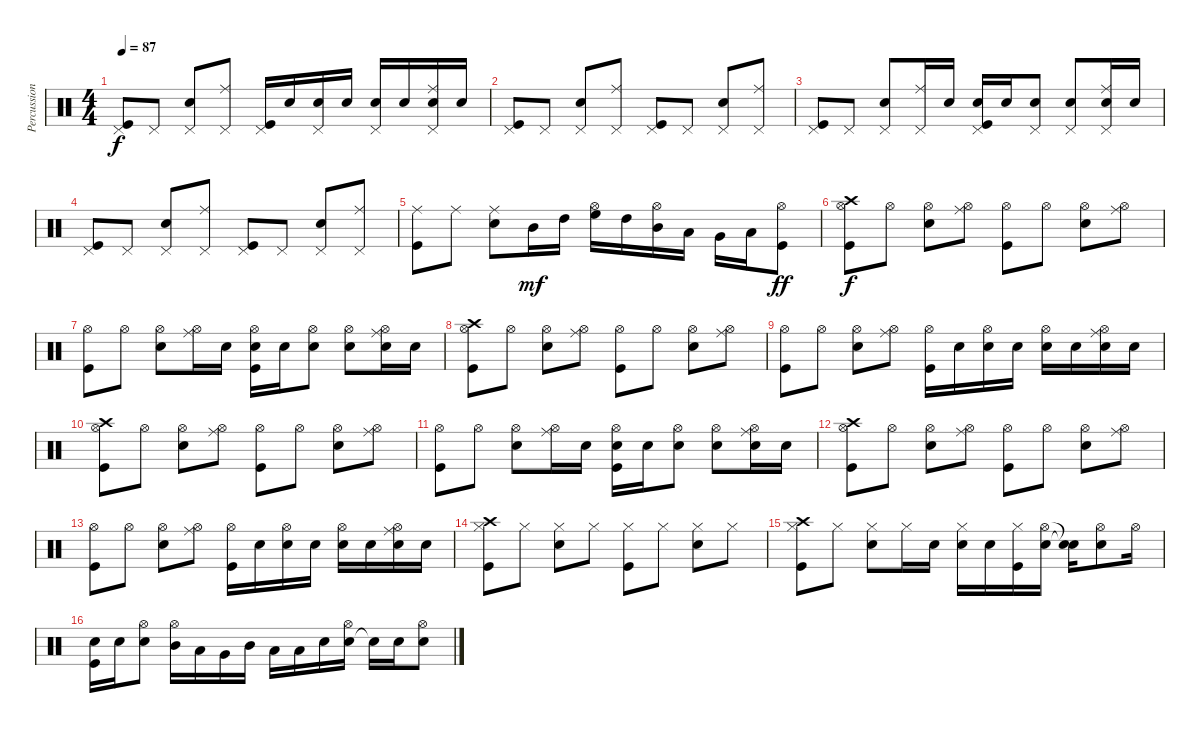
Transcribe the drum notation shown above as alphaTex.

\track ("Percussion" "Percussion") {instrument percussion}
\staff {score}
\articulation defaults
\ts (4 4)
\tempo 87
\clef neutral
\ks c
("Pedal Hi-Hat (hit)" "Kick (hit)").8{dy f} "Pedal Hi-Hat (hit)".8 ("Pedal Hi-Hat (hit)" "Snare (hit) 2").8 ("Ride (middle)" "Pedal Hi-Hat (hit)").8 ("Pedal Hi-Hat (hit)" "Kick (hit)").16 "Snare (hit) 2".16 ("Pedal Hi-Hat (hit)" "Snare (hit) 2").16 "Snare (hit) 2".16 ("Pedal Hi-Hat (hit)" "Snare (hit) 2").16 "Snare (hit) 2".16 ("Ride (middle)" "Pedal Hi-Hat (hit)" "Snare (hit) 2").16 "Snare (hit) 2".16 |
("Pedal Hi-Hat (hit)" "Kick (hit)").8 "Pedal Hi-Hat (hit)".8 ("Pedal Hi-Hat (hit)" "Snare (hit) 2").8 ("Ride (middle)" "Pedal Hi-Hat (hit)").8 ("Pedal Hi-Hat (hit)" "Kick (hit)").8 "Pedal Hi-Hat (hit)".8 ("Pedal Hi-Hat (hit)" "Snare (hit) 2").8 ("Ride (middle)" "Pedal Hi-Hat (hit)").8 |
("Pedal Hi-Hat (hit)" "Kick (hit)").8 "Pedal Hi-Hat (hit)".8 ("Pedal Hi-Hat (hit)" "Snare (hit) 2").8 ("Ride (middle)" "Pedal Hi-Hat (hit)").16 "Snare (hit) 2".16 ("Pedal Hi-Hat (hit)" "Snare (hit) 2" "Kick (hit)").16 "Snare (hit) 2".16 ("Pedal Hi-Hat (hit)" "Snare (hit) 2").8 ("Pedal Hi-Hat (hit)" "Snare (hit) 2").8 ("Ride (middle)" "Pedal Hi-Hat (hit)" "Snare (hit) 2").16 "Snare (hit) 2".16 |
("Pedal Hi-Hat (hit)" "Kick (hit)").8 "Pedal Hi-Hat (hit)".8 ("Pedal Hi-Hat (hit)" "Snare (hit) 2").8 ("Ride (middle)" "Pedal Hi-Hat (hit)").8 ("Pedal Hi-Hat (hit)" "Kick (hit)").8 "Pedal Hi-Hat (hit)".8 ("Pedal Hi-Hat (hit)" "Snare (hit) 2").8 ("Ride (middle)" "Pedal Hi-Hat (hit)").8 |
("Ride (middle)" "Kick (hit)").8 "Ride (middle)".8 ("Ride (middle)" "Snare (hit) 2").8 "Mid Tom (hit)".16{dy mf} "High Tom (hit)".16 ("Hi-Hat (open)" "High Floor Tom (hit)").16 "High Tom (hit)".16 ("Hi-Hat (open)" "Mid Tom (hit)").16 "Low Tom (hit)".16 "Very Low Tom (hit)".16 "Low Floor Tom (hit)".16 ("Hi-Hat (open)" "Kick (hit)").8{dy ff} |
("Hi-Hat (open)" "Crash high (hit)" "Kick (hit)").8{dy f} "Hi-Hat (open)".8 ("Hi-Hat (open)" "Snare (hit) 2").8 ("Ride (middle)" "Hi-Hat (open)").8 ("Hi-Hat (open)" "Kick (hit)").8 "Hi-Hat (open)".8 ("Hi-Hat (open)" "Snare (hit) 2").8 ("Ride (middle)" "Hi-Hat (open)").8 |
("Hi-Hat (open)" "Kick (hit)").8 "Hi-Hat (open)".8 ("Hi-Hat (open)" "Snare (hit) 2").8 ("Ride (middle)" "Hi-Hat (open)").16 "Snare (hit) 2".16 ("Hi-Hat (open)" "Snare (hit) 2" "Kick (hit)").16 "Snare (hit) 2".16 ("Hi-Hat (open)" "Snare (hit) 2").8 ("Hi-Hat (open)" "Snare (hit) 2").8 ("Ride (middle)" "Hi-Hat (open)" "Snare (hit) 2").16 "Snare (hit) 2".16 |
("Hi-Hat (open)" "Crash high (hit)" "Kick (hit)").8 "Hi-Hat (open)".8 ("Hi-Hat (open)" "Snare (hit) 2").8 ("Ride (middle)" "Hi-Hat (open)").8 ("Hi-Hat (open)" "Kick (hit)").8 "Hi-Hat (open)".8 ("Hi-Hat (open)" "Snare (hit) 2").8 ("Ride (middle)" "Hi-Hat (open)").8 |
("Hi-Hat (open)" "Kick (hit)").8 "Hi-Hat (open)".8 ("Hi-Hat (open)" "Snare (hit) 2").8 ("Ride (middle)" "Hi-Hat (open)").8 ("Hi-Hat (open)" "Kick (hit)").16 "Snare (hit) 2".16 ("Hi-Hat (open)" "Snare (hit) 2").16 "Snare (hit) 2".16 ("Hi-Hat (open)" "Snare (hit) 2").16 "Snare (hit) 2".16 ("Ride (middle)" "Hi-Hat (open)" "Snare (hit) 2").16 "Snare (hit) 2".16 |
("Hi-Hat (open)" "Crash high (hit)" "Kick (hit)").8 "Hi-Hat (open)".8 ("Hi-Hat (open)" "Snare (hit) 2").8 ("Ride (middle)" "Hi-Hat (open)").8 ("Hi-Hat (open)" "Kick (hit)").8 "Hi-Hat (open)".8 ("Hi-Hat (open)" "Snare (hit) 2").8 ("Ride (middle)" "Hi-Hat (open)").8 |
("Hi-Hat (open)" "Kick (hit)").8 "Hi-Hat (open)".8 ("Hi-Hat (open)" "Snare (hit) 2").8 ("Ride (middle)" "Hi-Hat (open)").16 "Snare (hit) 2".16 ("Hi-Hat (open)" "Snare (hit) 2" "Kick (hit)").16 "Snare (hit) 2".16 ("Hi-Hat (open)" "Snare (hit) 2").8 ("Hi-Hat (open)" "Snare (hit) 2").8 ("Ride (middle)" "Hi-Hat (open)" "Snare (hit) 2").16 "Snare (hit) 2".16 |
("Hi-Hat (open)" "Crash high (hit)" "Kick (hit)").8 "Hi-Hat (open)".8 ("Hi-Hat (open)" "Snare (hit) 2").8 ("Ride (middle)" "Hi-Hat (open)").8 ("Hi-Hat (open)" "Kick (hit)").8 "Hi-Hat (open)".8 ("Hi-Hat (open)" "Snare (hit) 2").8 ("Ride (middle)" "Hi-Hat (open)").8 |
("Hi-Hat (open)" "Kick (hit)").8 "Hi-Hat (open)".8 ("Hi-Hat (open)" "Snare (hit) 2").8 ("Ride (middle)" "Hi-Hat (open)").8 ("Hi-Hat (open)" "Kick (hit)").16 "Snare (hit) 2".16 ("Hi-Hat (open)" "Snare (hit) 2").16 "Snare (hit) 2".16 ("Hi-Hat (open)" "Snare (hit) 2").16 "Snare (hit) 2".16 ("Ride (middle)" "Hi-Hat (open)" "Snare (hit) 2").16 "Snare (hit) 2".16 |
("Crash high (hit)" "Hi-Hat (closed)" "Kick (hit)").8 "Hi-Hat (closed)".8 ("Hi-Hat (closed)" "Snare (hit) 2").8 "Hi-Hat (closed)".8 ("Hi-Hat (closed)" "Kick (hit)").8 "Hi-Hat (closed)".8 ("Hi-Hat (closed)" "Snare (hit) 2").8 "Hi-Hat (closed)".8 |
("Crash high (hit)" "Hi-Hat (closed)" "Kick (hit)").8 "Hi-Hat (closed)".8 ("Hi-Hat (closed)" "Snare (hit) 2").8 "Hi-Hat (closed)".16 "Snare (hit) 2".16 ("Hi-Hat (closed)" "Snare (hit) 2").16 "Snare (hit) 2".16 ("Hi-Hat (closed)" "Kick (hit)").16 ("Hi-Hat (open)" "Snare (hit) 2").16 ("Snare (hit)"{t} "Snare (hit)"{t}).16 ("Hi-Hat (open)" "Snare (hit) 2").8 "Hi-Hat (open)".16 |
("Kick (hit)" "Snare (hit) 2").16 "Snare (hit) 2".16 ("Hi-Hat (open)" "Snare (hit) 2").8 ("Mid Tom (hit)" "Hi-Hat (open)").16 "Low Tom (hit)".16 "Very Low Tom (hit)".16 "Mid Tom (hit)".16 "Low Tom (hit)".16 "Low Floor Tom (hit)".16 "Snare (hit) 2".16 ("Snare (hit) 2" "Hi-Hat (open)").16 "Snare (hit)"{t}.16 "Snare (hit) 2".16 ("Snare (hit) 2" "Hi-Hat (open)").8
